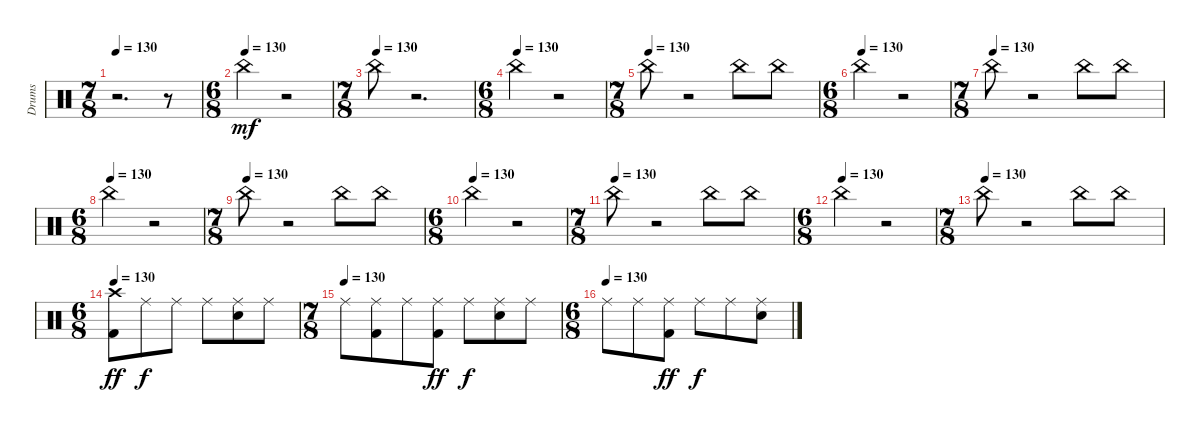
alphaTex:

\track ("Drums" "Drums") {instrument percussion}
\staff {score}
\articulation defaults
\ts (7 8)
\tempo 130
\clef neutral
\ks c
r.2{d dy ff} r.8 |
\ts (6 8)
\tempo (130)
"China (hit)".4{dy mf} r.2 |
\ts (7 8)
\tempo (130)
"China (hit)".8 r.2{d} |
\ts (6 8)
\tempo (130)
"China (hit)".4 r.2 |
\ts (7 8)
\tempo (130)
"China (hit)".8 r.2 "China (hit)".8 "China (hit)".8 |
\ts (6 8)
\tempo (130)
"China (hit)".4 r.2 |
\ts (7 8)
\tempo (130)
"China (hit)".8 r.2 "China (hit)".8 "China (hit)".8 |
\ts (6 8)
\tempo (130)
"China (hit)".4 r.2 |
\ts (7 8)
\tempo (130)
"China (hit)".8 r.2 "China (hit)".8 "China (hit)".8 |
\ts (6 8)
\tempo (130)
"China (hit)".4 r.2 |
\ts (7 8)
\tempo (130)
"China (hit)".8 r.2 "China (hit)".8 "China (hit)".8 |
\ts (6 8)
\tempo (130)
"China (hit)".4 r.2 |
\ts (7 8)
\tempo (130)
"China (hit)".8 r.2 "China (hit)".8 "China (hit)".8 |
\ts (6 8)
\tempo 130
("Crash high (hit)" "Kick (hit) 2").8{dy ff} "Ride (middle)".8{dy f} "Ride (middle)".8 "Ride (middle)".8 ("Ride (middle)" "Electric Snare (hit)").8 "Ride (middle)".8 |
\ts (7 8)
\tempo (130)
"Ride (middle)".8 ("Ride (middle)" "Kick (hit) 2").8 "Ride (middle)".8 ("Ride (middle)" "Kick (hit) 2").8{dy ff} "Ride (middle)".8{dy f} ("Ride (middle)" "Electric Snare (hit)").8 "Ride (middle)".8 |
\ts (6 8)
\tempo (130)
"Ride (middle)".8 "Ride (middle)".8 ("Kick (hit) 2" "Ride (middle)").8{dy ff} "Ride (middle)".8{dy f} "Ride (middle)".8 ("Electric Snare (hit)" "Ride (middle)").8
